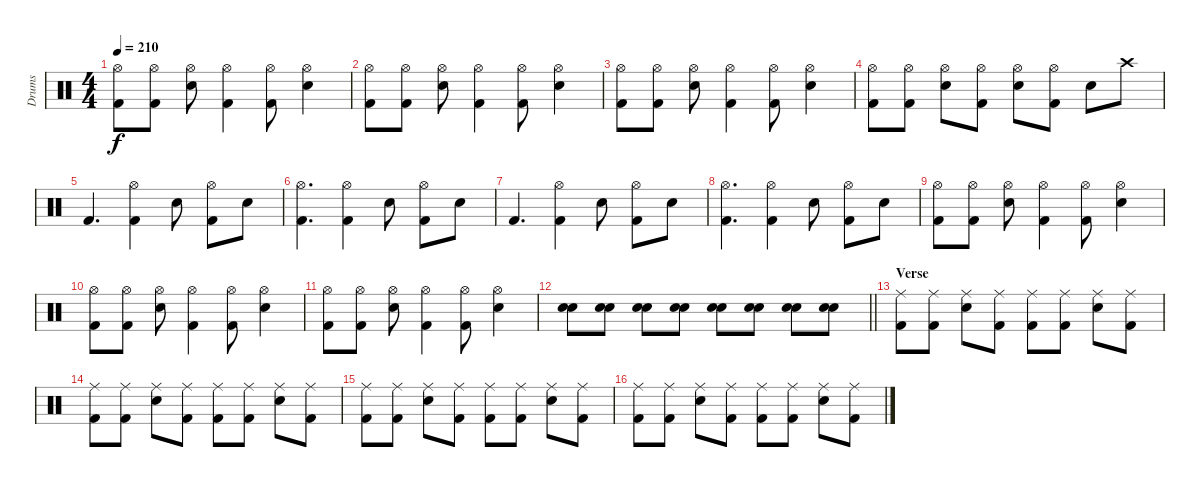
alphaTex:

\track ("Drums" "Drums") {instrument percussion}
\staff {score}
\articulation defaults
\ts (4 4)
\tempo 210
\clef neutral
\ks c
("Hi-Hat (open)" "Kick (hit) 2").8{dy f} ("Hi-Hat (open)" "Kick (hit) 2").8 ("Hi-Hat (open)" "Electric Snare (hit)").8 ("Hi-Hat (open)" "Kick (hit) 2").4 ("Hi-Hat (open)" "Kick (hit) 2").8 ("Hi-Hat (open)" "Electric Snare (hit)").4 |
("Hi-Hat (open)" "Kick (hit) 2").8 ("Hi-Hat (open)" "Kick (hit) 2").8 ("Hi-Hat (open)" "Electric Snare (hit)").8 ("Hi-Hat (open)" "Kick (hit) 2").4 ("Hi-Hat (open)" "Kick (hit) 2").8 ("Hi-Hat (open)" "Electric Snare (hit)").4 |
("Hi-Hat (open)" "Kick (hit) 2").8 ("Hi-Hat (open)" "Kick (hit) 2").8 ("Hi-Hat (open)" "Electric Snare (hit)").8 ("Hi-Hat (open)" "Kick (hit) 2").4 ("Hi-Hat (open)" "Kick (hit) 2").8 ("Hi-Hat (open)" "Electric Snare (hit)").4 |
("Hi-Hat (open)" "Kick (hit) 2").8 ("Hi-Hat (open)" "Kick (hit) 2").8 ("Hi-Hat (open)" "Electric Snare (hit)").8 ("Hi-Hat (open)" "Kick (hit) 2").8 ("Hi-Hat (open)" "Electric Snare (hit)").8 ("Hi-Hat (open)" "Kick (hit) 2").8 "Electric Snare (hit)".8 "Crash high (hit)".8 |
"Kick (hit) 2".4{d} ("Hi-Hat (open)" "Kick (hit) 2").4 "Electric Snare (hit)".8 ("Hi-Hat (open)" "Kick (hit) 2").8 "Electric Snare (hit)".8 |
("Hi-Hat (open)" "Kick (hit) 2").4{d} ("Hi-Hat (open)" "Kick (hit) 2").4 "Electric Snare (hit)".8 ("Hi-Hat (open)" "Kick (hit) 2").8 "Electric Snare (hit)".8 |
"Kick (hit) 2".4{d} ("Hi-Hat (open)" "Kick (hit) 2").4 "Electric Snare (hit)".8 ("Hi-Hat (open)" "Kick (hit) 2").8 "Electric Snare (hit)".8 |
("Hi-Hat (open)" "Kick (hit) 2").4{d} ("Hi-Hat (open)" "Kick (hit) 2").4 "Electric Snare (hit)".8 ("Hi-Hat (open)" "Kick (hit) 2").8 "Electric Snare (hit)".8 |
("Hi-Hat (open)" "Kick (hit) 2").8 ("Hi-Hat (open)" "Kick (hit) 2").8 ("Hi-Hat (open)" "Electric Snare (hit)").8 ("Hi-Hat (open)" "Kick (hit) 2").4 ("Hi-Hat (open)" "Kick (hit) 2").8 ("Hi-Hat (open)" "Electric Snare (hit)").4 |
("Hi-Hat (open)" "Kick (hit) 2").8 ("Hi-Hat (open)" "Kick (hit) 2").8 ("Hi-Hat (open)" "Electric Snare (hit)").8 ("Hi-Hat (open)" "Kick (hit) 2").4 ("Hi-Hat (open)" "Kick (hit) 2").8 ("Hi-Hat (open)" "Electric Snare (hit)").4 |
("Hi-Hat (open)" "Kick (hit) 2").8 ("Hi-Hat (open)" "Kick (hit) 2").8 ("Hi-Hat (open)" "Electric Snare (hit)").8 ("Hi-Hat (open)" "Kick (hit) 2").4 ("Hi-Hat (open)" "Kick (hit) 2").8 ("Hi-Hat (open)" "Electric Snare (hit)").4 |
\barLineRight lightlight
("Electric Snare (hit)" "Electric Snare (hit)").8 ("Electric Snare (hit)" "Electric Snare (hit)").8 ("Electric Snare (hit)" "Electric Snare (hit)").8 ("Electric Snare (hit)" "Electric Snare (hit)").8 ("Electric Snare (hit)" "Electric Snare (hit)").8 ("Electric Snare (hit)" "Electric Snare (hit)").8 ("Electric Snare (hit)" "Electric Snare (hit)").8 ("Electric Snare (hit)" "Electric Snare (hit)").8 |
\section ("" "Verse")
("Ride (middle)" "Kick (hit) 2").8 ("Ride (middle)" "Kick (hit) 2").8 ("Ride (middle)" "Electric Snare (hit)").8 ("Ride (middle)" "Kick (hit) 2").8 ("Ride (middle)" "Kick (hit) 2").8 ("Ride (middle)" "Kick (hit) 2").8 ("Ride (middle)" "Electric Snare (hit)").8 ("Ride (middle)" "Kick (hit) 2").8 |
("Ride (middle)" "Kick (hit) 2").8 ("Ride (middle)" "Kick (hit) 2").8 ("Ride (middle)" "Electric Snare (hit)").8 ("Ride (middle)" "Kick (hit) 2").8 ("Ride (middle)" "Kick (hit) 2").8 ("Ride (middle)" "Kick (hit) 2").8 ("Ride (middle)" "Electric Snare (hit)").8 ("Ride (middle)" "Kick (hit) 2").8 |
("Ride (middle)" "Kick (hit) 2").8 ("Ride (middle)" "Kick (hit) 2").8 ("Ride (middle)" "Electric Snare (hit)").8 ("Ride (middle)" "Kick (hit) 2").8 ("Ride (middle)" "Kick (hit) 2").8 ("Ride (middle)" "Kick (hit) 2").8 ("Ride (middle)" "Electric Snare (hit)").8 ("Ride (middle)" "Kick (hit) 2").8 |
("Ride (middle)" "Kick (hit) 2").8 ("Ride (middle)" "Kick (hit) 2").8 ("Ride (middle)" "Electric Snare (hit)").8 ("Ride (middle)" "Kick (hit) 2").8 ("Ride (middle)" "Kick (hit) 2").8 ("Ride (middle)" "Kick (hit) 2").8 ("Ride (middle)" "Electric Snare (hit)").8 ("Ride (middle)" "Kick (hit) 2").8
